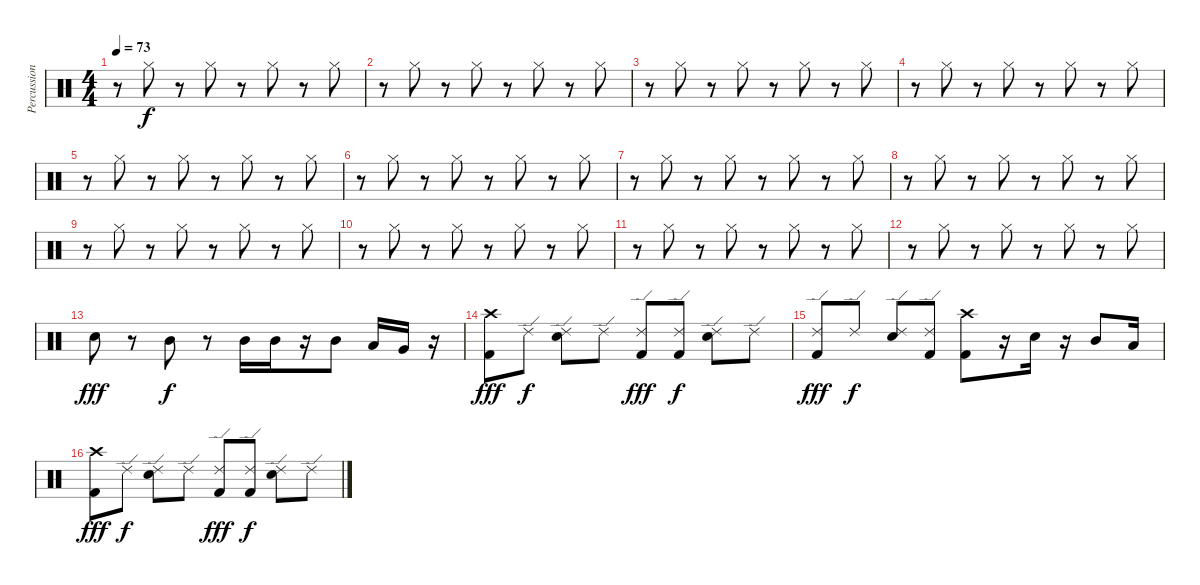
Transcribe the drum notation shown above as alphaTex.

\track ("Percussion" "Percussion") {instrument percussion}
\staff {score}
\articulation defaults
\ts (4 4)
\tempo 73
\clef neutral
\ks c
r.8{dy f} "Hi-Hat (closed)".8 r.8 "Hi-Hat (closed)".8 r.8 "Hi-Hat (closed)".8 r.8 "Hi-Hat (closed)".8 |
r.8 "Hi-Hat (closed)".8 r.8 "Hi-Hat (closed)".8 r.8 "Hi-Hat (closed)".8 r.8 "Hi-Hat (closed)".8 |
r.8 "Hi-Hat (closed)".8 r.8 "Hi-Hat (closed)".8 r.8 "Hi-Hat (closed)".8 r.8 "Hi-Hat (closed)".8 |
r.8 "Hi-Hat (closed)".8 r.8 "Hi-Hat (closed)".8 r.8 "Hi-Hat (closed)".8 r.8 "Hi-Hat (closed)".8 |
r.8 "Hi-Hat (closed)".8 r.8 "Hi-Hat (closed)".8 r.8 "Hi-Hat (closed)".8 r.8 "Hi-Hat (closed)".8 |
r.8 "Hi-Hat (closed)".8 r.8 "Hi-Hat (closed)".8 r.8 "Hi-Hat (closed)".8 r.8 "Hi-Hat (closed)".8 |
r.8 "Hi-Hat (closed)".8 r.8 "Hi-Hat (closed)".8 r.8 "Hi-Hat (closed)".8 r.8 "Hi-Hat (closed)".8 |
r.8 "Hi-Hat (closed)".8 r.8 "Hi-Hat (closed)".8 r.8 "Hi-Hat (closed)".8 r.8 "Hi-Hat (closed)".8 |
r.8 "Hi-Hat (closed)".8 r.8 "Hi-Hat (closed)".8 r.8 "Hi-Hat (closed)".8 r.8 "Hi-Hat (closed)".8 |
r.8 "Hi-Hat (closed)".8 r.8 "Hi-Hat (closed)".8 r.8 "Hi-Hat (closed)".8 r.8 "Hi-Hat (closed)".8 |
r.8 "Hi-Hat (closed)".8 r.8 "Hi-Hat (closed)".8 r.8 "Hi-Hat (closed)".8 r.8 "Hi-Hat (closed)".8 |
r.8 "Hi-Hat (closed)".8 r.8 "Hi-Hat (closed)".8 r.8 "Hi-Hat (closed)".8 r.8 "Hi-Hat (closed)".8 |
"Electric Snare (hit)".8{dy fff} r.8 "Mid Tom (hit)".8{dy f} r.8 "Mid Tom (hit)".16 "Mid Tom (hit)".16 r.16 "Mid Tom (hit)".8 "Low Tom (hit)".16 "Very Low Tom (hit)".16 r.16 |
("Crash high (hit)" "Kick (hit) 2").8{dy fff} "Ride (edge) 2".8{dy f} ("Ride (edge) 2" "Electric Snare (hit)").8 "Ride (edge) 2".8 ("Ride (edge) 2" "Kick (hit) 2").8{dy fff} ("Ride (edge) 2" "Kick (hit) 2").8{dy f} ("Ride (edge) 2" "Electric Snare (hit)").8 "Ride (edge) 2".8 |
("Ride (edge) 2" "Kick (hit) 2").8{dy fff} "Ride (edge) 2".8{dy f} ("Ride (edge) 2" "Electric Snare (hit)").8 ("Ride (edge) 2" "Kick (hit) 2").8 ("Crash high (hit)" "Kick (hit) 2").8 r.16 "Electric Snare (hit)".16 r.16 "Mid Tom (hit)".8 "Low Tom (hit)".16 |
("Crash high (hit)" "Kick (hit) 2").8{dy fff} "Ride (edge) 2".8{dy f} ("Ride (edge) 2" "Electric Snare (hit)").8 "Ride (edge) 2".8 ("Ride (edge) 2" "Kick (hit) 2").8{dy fff} ("Ride (edge) 2" "Kick (hit) 2").8{dy f} ("Ride (edge) 2" "Electric Snare (hit)").8 "Ride (edge) 2".8
